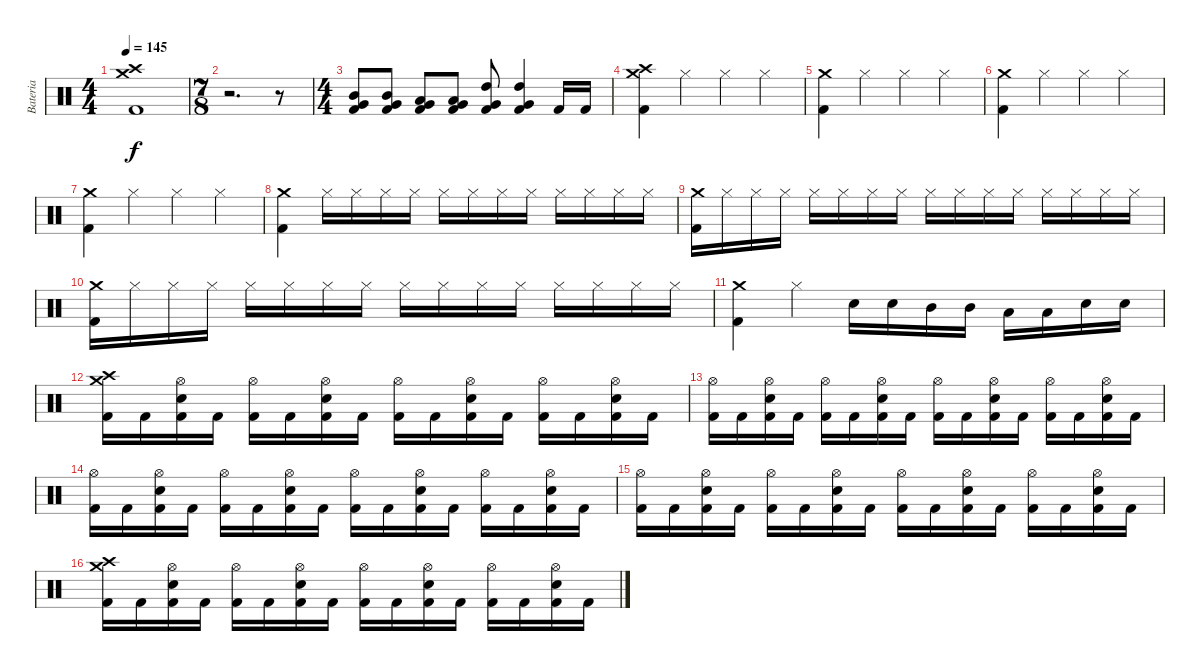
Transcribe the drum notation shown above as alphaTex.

\track ("Bateria" "Bateria") {instrument percussion}
\staff {score}
\articulation defaults
\ts (4 4)
\tempo 145
\clef neutral
\ks c
("Crash high (hit)" "Crash medium (hit)" "Kick (hit) 2").1{dy f} |
\ts (7 8)
r.2{d} r.8 |
\ts (4 4)
("Mid Tom (hit)" "Very Low Tom (hit)" "Kick (hit) 2").8 ("Mid Tom (hit)" "Very Low Tom (hit)" "Kick (hit) 2").8 ("Low Tom (hit)" "Very Low Tom (hit)" "Kick (hit) 2").8 ("Low Tom (hit)" "Very Low Tom (hit)" "Kick (hit) 2").8 ("High Tom (hit)" "Very Low Tom (hit)" "Kick (hit) 2").8 ("High Tom (hit)" "Very Low Tom (hit)" "Kick (hit) 2").4 "Kick (hit) 2".16 "Kick (hit) 2".16 |
("Crash medium (hit)" "Crash high (hit)" "Kick (hit) 2").4 "Hi-Hat (closed)".4 "Hi-Hat (closed)".4 "Hi-Hat (closed)".4 |
("Crash medium (hit)" "Kick (hit) 2").4 "Hi-Hat (closed)".4 "Hi-Hat (closed)".4 "Hi-Hat (closed)".4 |
("Crash medium (hit)" "Kick (hit) 2").4 "Hi-Hat (closed)".4 "Hi-Hat (closed)".4 "Hi-Hat (closed)".4 |
("Crash medium (hit)" "Kick (hit) 2").4 "Hi-Hat (closed)".4 "Hi-Hat (closed)".4 "Hi-Hat (closed)".4 |
("Crash medium (hit)" "Kick (hit) 2").4 "Hi-Hat (closed)".16 "Hi-Hat (closed)".16 "Hi-Hat (closed)".16 "Hi-Hat (closed)".16 "Hi-Hat (closed)".16 "Hi-Hat (closed)".16 "Hi-Hat (closed)".16 "Hi-Hat (closed)".16 "Hi-Hat (closed)".16 "Hi-Hat (closed)".16 "Hi-Hat (closed)".16 "Hi-Hat (closed)".16 |
("Crash medium (hit)" "Kick (hit) 2").16 "Hi-Hat (closed)".16 "Hi-Hat (closed)".16 "Hi-Hat (closed)".16 "Hi-Hat (closed)".16 "Hi-Hat (closed)".16 "Hi-Hat (closed)".16 "Hi-Hat (closed)".16 "Hi-Hat (closed)".16 "Hi-Hat (closed)".16 "Hi-Hat (closed)".16 "Hi-Hat (closed)".16 "Hi-Hat (closed)".16 "Hi-Hat (closed)".16 "Hi-Hat (closed)".16 "Hi-Hat (closed)".16 |
("Crash medium (hit)" "Kick (hit) 2").16 "Hi-Hat (closed)".16 "Hi-Hat (closed)".16 "Hi-Hat (closed)".16 "Hi-Hat (closed)".16 "Hi-Hat (closed)".16 "Hi-Hat (closed)".16 "Hi-Hat (closed)".16 "Hi-Hat (closed)".16 "Hi-Hat (closed)".16 "Hi-Hat (closed)".16 "Hi-Hat (closed)".16 "Hi-Hat (closed)".16 "Hi-Hat (closed)".16 "Hi-Hat (closed)".16 "Hi-Hat (closed)".16 |
("Crash medium (hit)" "Kick (hit) 2").4 "Hi-Hat (closed)".4 "Snare (hit) 2".16 "Snare (hit) 2".16 "Mid Tom (hit)".16 "Mid Tom (hit)".16 "Low Tom (hit)".16 "Low Tom (hit)".16 "Snare (hit) 2".16 "Snare (hit) 2".16 |
("Crash medium (hit)" "Crash high (hit)" "Kick (hit) 2").16 "Kick (hit) 2".16 ("Hi-Hat (open)" "Snare (hit) 2" "Kick (hit) 2").16 "Kick (hit) 2".16 ("Hi-Hat (open)" "Kick (hit) 2").16 "Kick (hit) 2".16 ("Hi-Hat (open)" "Snare (hit) 2" "Kick (hit) 2").16 "Kick (hit) 2".16 ("Hi-Hat (open)" "Kick (hit) 2").16 "Kick (hit) 2".16 ("Hi-Hat (open)" "Snare (hit) 2" "Kick (hit) 2").16 "Kick (hit) 2".16 ("Hi-Hat (open)" "Kick (hit) 2").16 "Kick (hit) 2".16 ("Hi-Hat (open)" "Snare (hit) 2" "Kick (hit) 2").16 "Kick (hit) 2".16 |
("Hi-Hat (open)" "Kick (hit) 2").16 "Kick (hit) 2".16 ("Hi-Hat (open)" "Snare (hit) 2" "Kick (hit) 2").16 "Kick (hit) 2".16 ("Hi-Hat (open)" "Kick (hit) 2").16 "Kick (hit) 2".16 ("Hi-Hat (open)" "Snare (hit) 2" "Kick (hit) 2").16 "Kick (hit) 2".16 ("Hi-Hat (open)" "Kick (hit) 2").16 "Kick (hit) 2".16 ("Hi-Hat (open)" "Snare (hit) 2" "Kick (hit) 2").16 "Kick (hit) 2".16 ("Hi-Hat (open)" "Kick (hit) 2").16 "Kick (hit) 2".16 ("Hi-Hat (open)" "Snare (hit) 2" "Kick (hit) 2").16 "Kick (hit) 2".16 |
("Hi-Hat (open)" "Kick (hit) 2").16 "Kick (hit) 2".16 ("Hi-Hat (open)" "Snare (hit) 2" "Kick (hit) 2").16 "Kick (hit) 2".16 ("Hi-Hat (open)" "Kick (hit) 2").16 "Kick (hit) 2".16 ("Hi-Hat (open)" "Snare (hit) 2" "Kick (hit) 2").16 "Kick (hit) 2".16 ("Hi-Hat (open)" "Kick (hit) 2").16 "Kick (hit) 2".16 ("Hi-Hat (open)" "Snare (hit) 2" "Kick (hit) 2").16 "Kick (hit) 2".16 ("Hi-Hat (open)" "Kick (hit) 2").16 "Kick (hit) 2".16 ("Hi-Hat (open)" "Snare (hit) 2" "Kick (hit) 2").16 "Kick (hit) 2".16 |
("Hi-Hat (open)" "Kick (hit) 2").16 "Kick (hit) 2".16 ("Hi-Hat (open)" "Snare (hit) 2" "Kick (hit) 2").16 "Kick (hit) 2".16 ("Hi-Hat (open)" "Kick (hit) 2").16 "Kick (hit) 2".16 ("Hi-Hat (open)" "Snare (hit) 2" "Kick (hit) 2").16 "Kick (hit) 2".16 ("Hi-Hat (open)" "Kick (hit) 2").16 "Kick (hit) 2".16 ("Hi-Hat (open)" "Snare (hit) 2" "Kick (hit) 2").16 "Kick (hit) 2".16 ("Hi-Hat (open)" "Kick (hit) 2").16 "Kick (hit) 2".16 ("Hi-Hat (open)" "Snare (hit) 2" "Kick (hit) 2").16 "Kick (hit) 2".16 |
("Crash medium (hit)" "Crash high (hit)" "Kick (hit) 2").16 "Kick (hit) 2".16 ("Hi-Hat (open)" "Snare (hit) 2" "Kick (hit) 2").16 "Kick (hit) 2".16 ("Hi-Hat (open)" "Kick (hit) 2").16 "Kick (hit) 2".16 ("Hi-Hat (open)" "Snare (hit) 2" "Kick (hit) 2").16 "Kick (hit) 2".16 ("Hi-Hat (open)" "Kick (hit) 2").16 "Kick (hit) 2".16 ("Hi-Hat (open)" "Snare (hit) 2" "Kick (hit) 2").16 "Kick (hit) 2".16 ("Hi-Hat (open)" "Kick (hit) 2").16 "Kick (hit) 2".16 ("Hi-Hat (open)" "Snare (hit) 2" "Kick (hit) 2").16 "Kick (hit) 2".16
